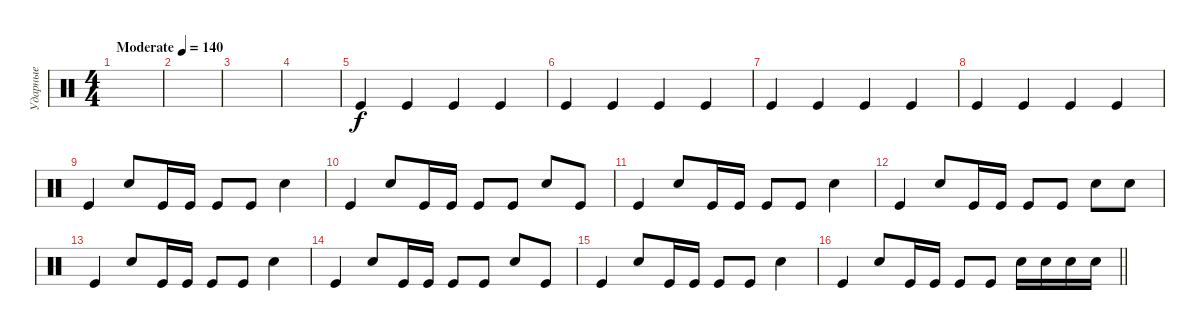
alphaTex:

\track ("Ударные" "Ударные") {instrument percussion}
\staff {score}
\articulation defaults
\ts (4 4)
\tempo (140 "Moderate")
\clef neutral
\ks c
|
|
|
|
"Kick (hit)".4 "Kick (hit)".4 "Kick (hit)".4 "Kick (hit)".4 |
"Kick (hit)".4 "Kick (hit)".4 "Kick (hit)".4 "Kick (hit)".4 |
"Kick (hit)".4 "Kick (hit)".4 "Kick (hit)".4 "Kick (hit)".4 |
"Kick (hit)".4 "Kick (hit)".4 "Kick (hit)".4 "Kick (hit)".4 |
"Kick (hit)".4 "Snare (hit) 2".8 "Kick (hit)".16 "Kick (hit)".16 "Kick (hit)".8 "Kick (hit)".8 "Snare (hit) 2".4 |
"Kick (hit)".4 "Snare (hit) 2".8 "Kick (hit)".16 "Kick (hit)".16 "Kick (hit)".8 "Kick (hit)".8 "Snare (hit) 2".8 "Kick (hit)".8 |
"Kick (hit)".4 "Snare (hit) 2".8 "Kick (hit)".16 "Kick (hit)".16 "Kick (hit)".8 "Kick (hit)".8 "Snare (hit) 2".4 |
"Kick (hit)".4 "Snare (hit) 2".8 "Kick (hit)".16 "Kick (hit)".16 "Kick (hit)".8 "Kick (hit)".8 "Snare (hit) 2".8 "Snare (hit) 2".8 |
"Kick (hit)".4 "Snare (hit) 2".8 "Kick (hit)".16 "Kick (hit)".16 "Kick (hit)".8 "Kick (hit)".8 "Snare (hit) 2".4 |
"Kick (hit)".4 "Snare (hit) 2".8 "Kick (hit)".16 "Kick (hit)".16 "Kick (hit)".8 "Kick (hit)".8 "Snare (hit) 2".8 "Kick (hit)".8 |
"Kick (hit)".4 "Snare (hit) 2".8 "Kick (hit)".16 "Kick (hit)".16 "Kick (hit)".8 "Kick (hit)".8 "Snare (hit) 2".4 |
\barLineRight lightlight "Kick (hit)".4 "Snare (hit) 2".8 "Kick (hit)".16 "Kick (hit)".16 "Kick (hit)".8 "Kick (hit)".8 "Snare (hit) 2".16 "Snare (hit) 2".16 "Snare (hit) 2".16 "Snare (hit) 2".16
